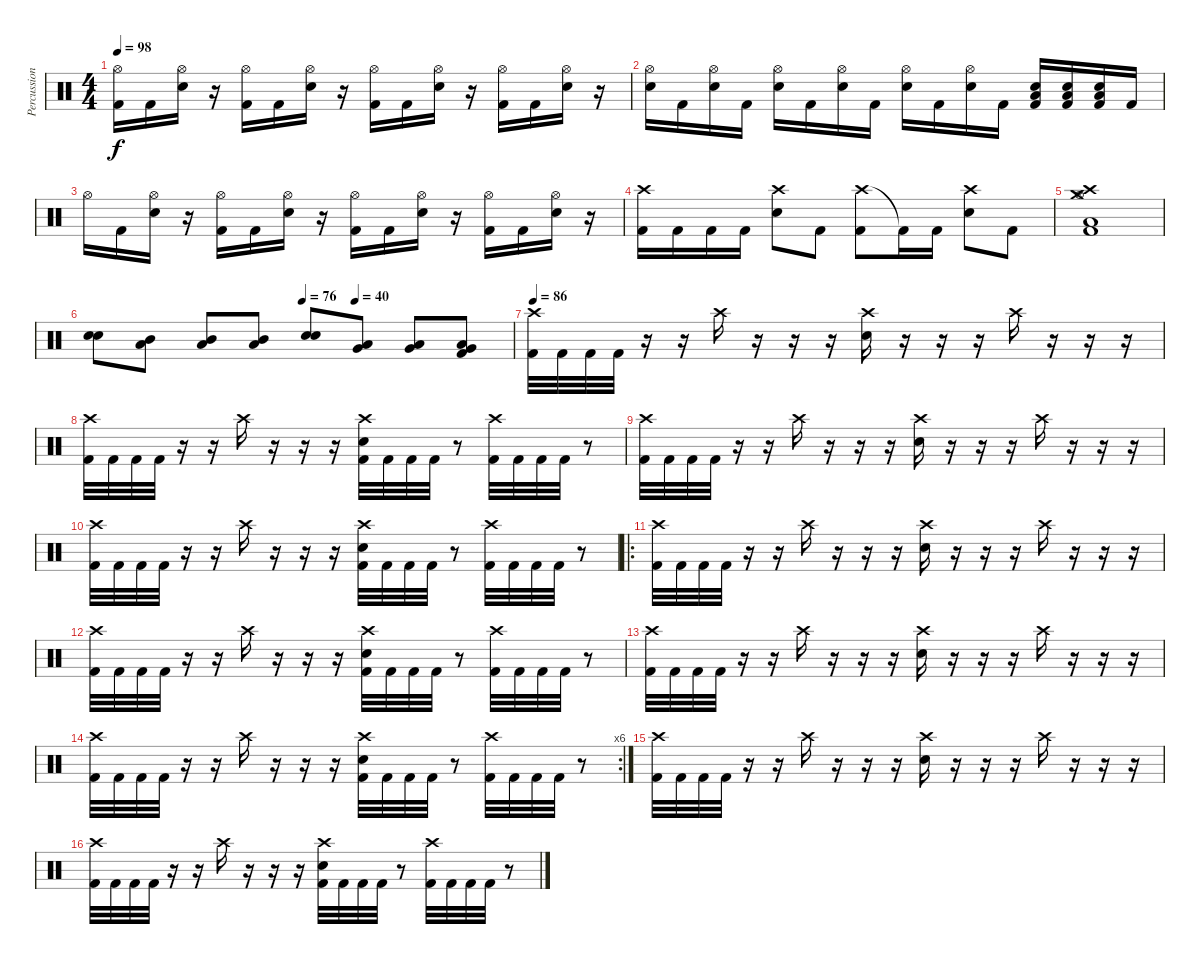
\track ("Percussion" "Percussion") {instrument percussion}
\staff {score}
\articulation defaults
\ts (4 4)
\tempo 98
\clef neutral
\ks c
("Hi-Hat (open)" "Kick (hit) 2").16{dy f} "Kick (hit) 2".16 ("Hi-Hat (open)" "Snare (hit) 2").16 r.16 ("Hi-Hat (open)" "Kick (hit) 2").16 "Kick (hit) 2".16 ("Hi-Hat (open)" "Snare (hit) 2").16 r.16 ("Hi-Hat (open)" "Kick (hit) 2").16 "Kick (hit) 2".16 ("Hi-Hat (open)" "Snare (hit) 2").16 r.16 ("Hi-Hat (open)" "Kick (hit) 2").16 "Kick (hit) 2".16 ("Hi-Hat (open)" "Snare (hit) 2").16 r.16 |
("Hi-Hat (open)" "Snare (hit) 2").16 "Kick (hit) 2".16 ("Hi-Hat (open)" "Snare (hit) 2").16 "Kick (hit) 2".16 ("Hi-Hat (open)" "Snare (hit) 2").16 "Kick (hit) 2".16 ("Hi-Hat (open)" "Snare (hit) 2").16 "Kick (hit) 2".16 ("Hi-Hat (open)" "Snare (hit) 2").16 "Kick (hit) 2".16 ("Hi-Hat (open)" "Snare (hit) 2").16 "Kick (hit) 2".16 ("Low Floor Tom (hit)" "Snare (hit) 2" "Kick (hit) 2").16 ("Low Floor Tom (hit)" "Snare (hit) 2" "Kick (hit) 2").16 ("Low Floor Tom (hit)" "Snare (hit) 2" "Kick (hit) 2").16 "Kick (hit) 2".16 |
"Hi-Hat (open)".16 "Kick (hit) 2".16 ("Hi-Hat (open)" "Snare (hit) 2").16 r.16 ("Hi-Hat (open)" "Kick (hit) 2").16 "Kick (hit) 2".16 ("Hi-Hat (open)" "Snare (hit) 2").16 r.16 ("Hi-Hat (open)" "Kick (hit) 2").16 "Kick (hit) 2".16 ("Hi-Hat (open)" "Snare (hit) 2").16 r.16 ("Hi-Hat (open)" "Kick (hit) 2").16 "Kick (hit) 2".16 ("Hi-Hat (open)" "Snare (hit) 2").16 r.16 |
("Crash high (hit)" "Kick (hit) 2").16 "Kick (hit) 2".16 "Kick (hit) 2".16 "Kick (hit) 2".16 ("Crash high (hit)" "Snare (hit) 2").8 "Kick (hit) 2".8 ("Crash high (hit)" "Kick (hit) 2").8 "Kick (hit) 2"{t}.16 "Kick (hit) 2".16 ("Crash high (hit)" "Snare (hit) 2").8 "Kick (hit) 2".8 |
("Kick (hit) 2" "Low Floor Tom (hit)" "Hi-Hat (open)" "Crash high (hit)" "Crash medium (hit)").1 |
\tempo (76 0.5)
\tempo (40 0.625)
("Snare (hit) 2" "Snare (hit) 2").8 ("Mid Tom (hit)" "Low Tom (hit)").8 ("Mid Tom (hit)" "Low Tom (hit)").8 ("Mid Tom (hit)" "Low Tom (hit)").8 ("Snare (hit) 2" "Snare (hit) 2").8 ("Low Floor Tom (hit)" "Very Low Tom (hit)").8 ("Very Low Tom (hit)" "Low Floor Tom (hit)").8 ("Kick (hit) 2" "Very Low Tom (hit)" "Low Floor Tom (hit)").8 |
\tempo 86
("Crash high (hit)" "Kick (hit) 2").32 "Kick (hit) 2".32 "Kick (hit) 2".32 "Kick (hit) 2".32 r.16 r.16 "Crash high (hit)".16 r.16 r.16 r.16 ("Snare (hit) 2" "Crash high (hit)").16 r.16 r.16 r.16 "Crash high (hit)".16 r.16 r.16 r.16 |
("Crash high (hit)" "Kick (hit) 2").32 "Kick (hit) 2".32 "Kick (hit) 2".32 "Kick (hit) 2".32 r.16 r.16 "Crash high (hit)".16 r.16 r.16 r.16 ("Snare (hit) 2" "Crash high (hit)" "Kick (hit) 2").32 "Kick (hit) 2".32 "Kick (hit) 2".32 "Kick (hit) 2".32 r.8 ("Crash high (hit)" "Kick (hit) 2").32 "Kick (hit) 2".32 "Kick (hit) 2".32 "Kick (hit) 2".32 r.8 |
("Crash high (hit)" "Kick (hit) 2").32 "Kick (hit) 2".32 "Kick (hit) 2".32 "Kick (hit) 2".32 r.16 r.16 "Crash high (hit)".16 r.16 r.16 r.16 ("Snare (hit) 2" "Crash high (hit)").16 r.16 r.16 r.16 "Crash high (hit)".16 r.16 r.16 r.16 |
("Crash high (hit)" "Kick (hit) 2").32 "Kick (hit) 2".32 "Kick (hit) 2".32 "Kick (hit) 2".32 r.16 r.16 "Crash high (hit)".16 r.16 r.16 r.16 ("Snare (hit) 2" "Crash high (hit)" "Kick (hit) 2").32 "Kick (hit) 2".32 "Kick (hit) 2".32 "Kick (hit) 2".32 r.8 ("Crash high (hit)" "Kick (hit) 2").32 "Kick (hit) 2".32 "Kick (hit) 2".32 "Kick (hit) 2".32 r.8 |
\ro
("Crash high (hit)" "Kick (hit) 2").32 "Kick (hit) 2".32 "Kick (hit) 2".32 "Kick (hit) 2".32 r.16 r.16 "Crash high (hit)".16 r.16 r.16 r.16 ("Snare (hit) 2" "Crash high (hit)").16 r.16 r.16 r.16 "Crash high (hit)".16 r.16 r.16 r.16 |
("Crash high (hit)" "Kick (hit) 2").32 "Kick (hit) 2".32 "Kick (hit) 2".32 "Kick (hit) 2".32 r.16 r.16 "Crash high (hit)".16 r.16 r.16 r.16 ("Snare (hit) 2" "Crash high (hit)" "Kick (hit) 2").32 "Kick (hit) 2".32 "Kick (hit) 2".32 "Kick (hit) 2".32 r.8 ("Crash high (hit)" "Kick (hit) 2").32 "Kick (hit) 2".32 "Kick (hit) 2".32 "Kick (hit) 2".32 r.8 |
("Crash high (hit)" "Kick (hit) 2").32 "Kick (hit) 2".32 "Kick (hit) 2".32 "Kick (hit) 2".32 r.16 r.16 "Crash high (hit)".16 r.16 r.16 r.16 ("Snare (hit) 2" "Crash high (hit)").16 r.16 r.16 r.16 "Crash high (hit)".16 r.16 r.16 r.16 |
\rc 6
("Crash high (hit)" "Kick (hit) 2").32 "Kick (hit) 2".32 "Kick (hit) 2".32 "Kick (hit) 2".32 r.16 r.16 "Crash high (hit)".16 r.16 r.16 r.16 ("Snare (hit) 2" "Crash high (hit)" "Kick (hit) 2").32 "Kick (hit) 2".32 "Kick (hit) 2".32 "Kick (hit) 2".32 r.8 ("Crash high (hit)" "Kick (hit) 2").32 "Kick (hit) 2".32 "Kick (hit) 2".32 "Kick (hit) 2".32 r.8 |
("Crash high (hit)" "Kick (hit) 2").32 "Kick (hit) 2".32 "Kick (hit) 2".32 "Kick (hit) 2".32 r.16 r.16 "Crash high (hit)".16 r.16 r.16 r.16 ("Snare (hit) 2" "Crash high (hit)").16 r.16 r.16 r.16 "Crash high (hit)".16 r.16 r.16 r.16 |
("Crash high (hit)" "Kick (hit) 2").32 "Kick (hit) 2".32 "Kick (hit) 2".32 "Kick (hit) 2".32 r.16 r.16 "Crash high (hit)".16 r.16 r.16 r.16 ("Snare (hit) 2" "Crash high (hit)" "Kick (hit) 2").32 "Kick (hit) 2".32 "Kick (hit) 2".32 "Kick (hit) 2".32 r.8 ("Crash high (hit)" "Kick (hit) 2").32 "Kick (hit) 2".32 "Kick (hit) 2".32 "Kick (hit) 2".32 r.8
